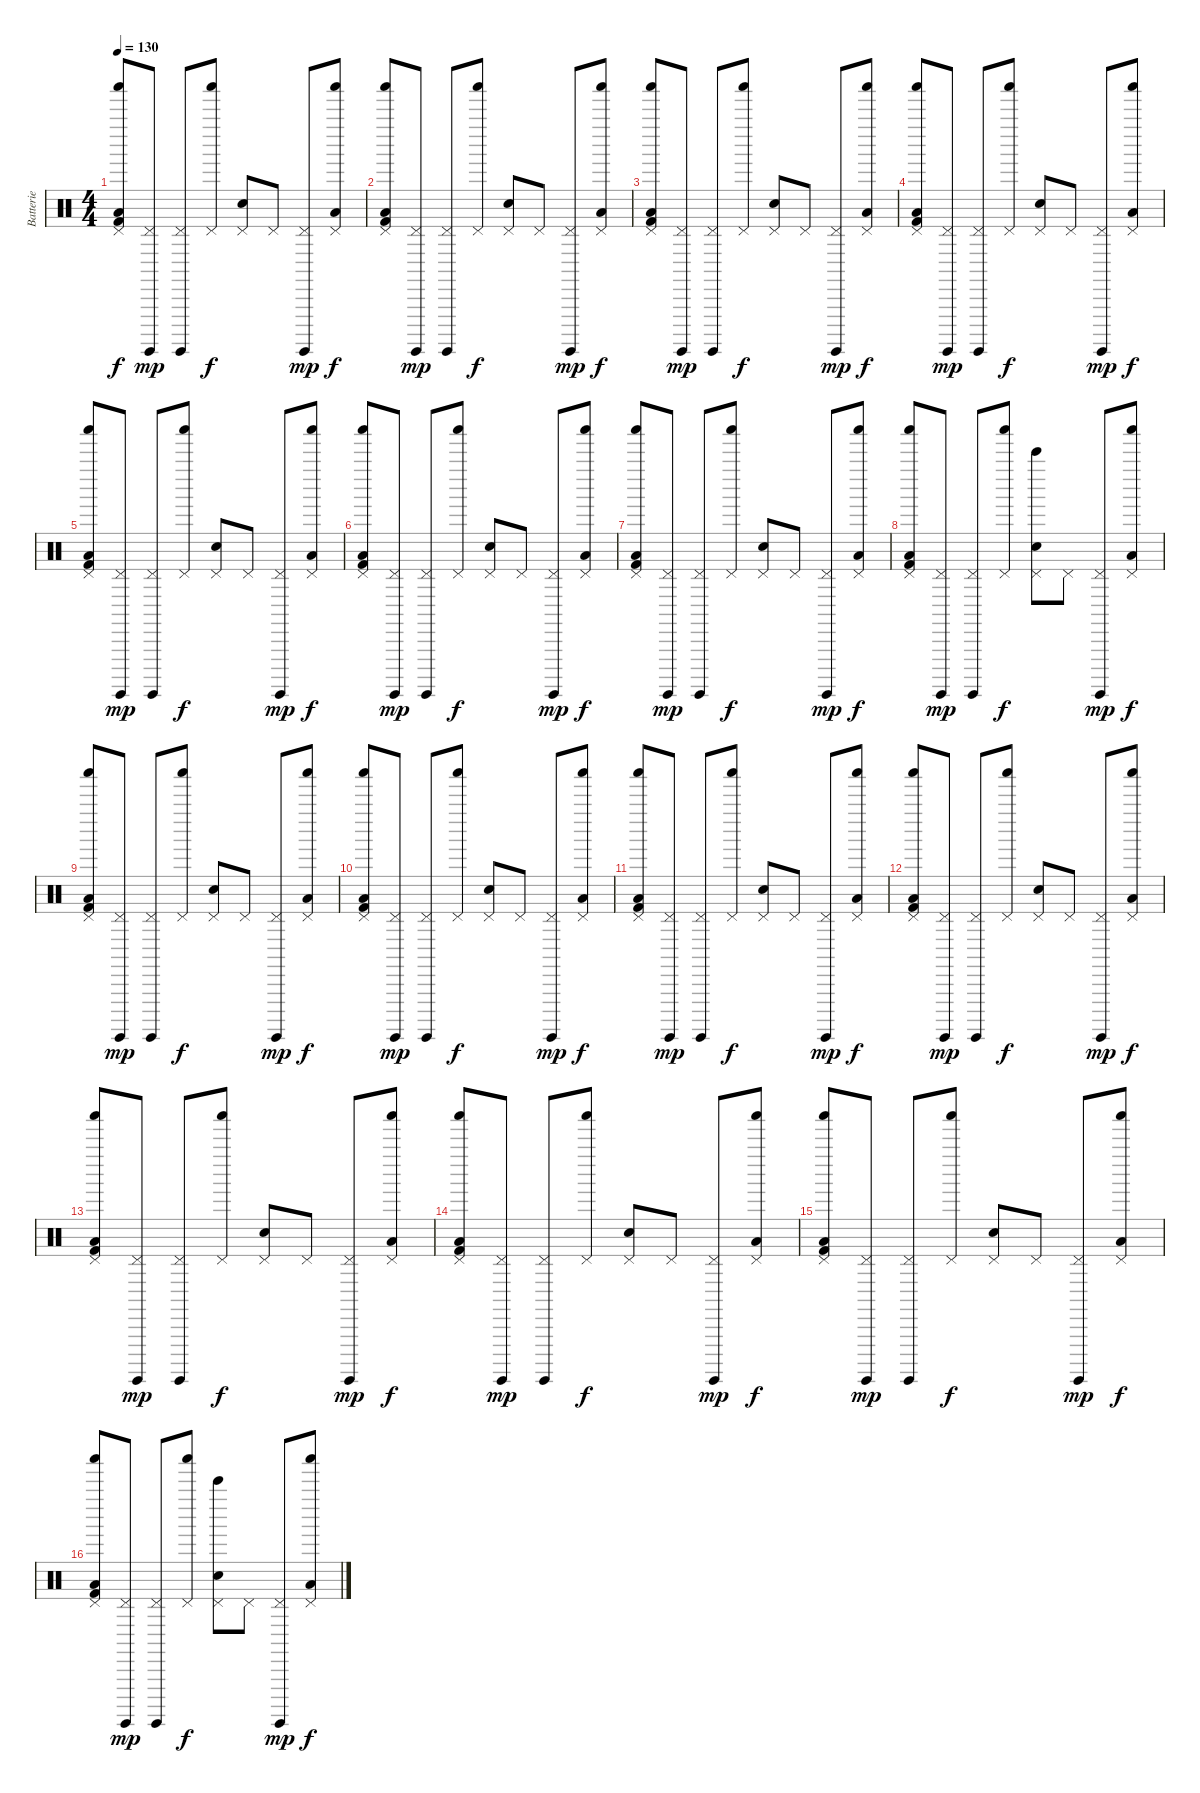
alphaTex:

\track ("Batterie" "Batterie") {instrument percussion}
\staff {score}
\articulation defaults
\ts (4 4)
\tempo 130
\clef neutral
\ks c
("Pedal Hi-Hat (hit)" "Shaker (hit)" "Low Floor Tom (hit)" "Kick (hit) 2").8{dy f} ("Pedal Hi-Hat (hit)" "Surdo (hit)").8{dy mp} ("Pedal Hi-Hat (hit)" "Surdo (hit)").8 ("Pedal Hi-Hat (hit)" "Shaker (hit)").8{dy f} ("Pedal Hi-Hat (hit)" "Electric Snare (hit)").8 "Pedal Hi-Hat (hit)".8 ("Pedal Hi-Hat (hit)" "Surdo (hit)").8{dy mp} ("Pedal Hi-Hat (hit)" "Shaker (hit)" "Low Floor Tom (hit)").8{dy f} |
("Pedal Hi-Hat (hit)" "Shaker (hit)" "Low Floor Tom (hit)" "Kick (hit) 2").8 ("Pedal Hi-Hat (hit)" "Surdo (hit)").8{dy mp} ("Pedal Hi-Hat (hit)" "Surdo (hit)").8 ("Pedal Hi-Hat (hit)" "Shaker (hit)").8{dy f} ("Pedal Hi-Hat (hit)" "Electric Snare (hit)").8 "Pedal Hi-Hat (hit)".8 ("Pedal Hi-Hat (hit)" "Surdo (hit)").8{dy mp} ("Pedal Hi-Hat (hit)" "Shaker (hit)" "Low Floor Tom (hit)").8{dy f} |
("Pedal Hi-Hat (hit)" "Shaker (hit)" "Low Floor Tom (hit)" "Kick (hit) 2").8 ("Pedal Hi-Hat (hit)" "Surdo (hit)").8{dy mp} ("Pedal Hi-Hat (hit)" "Surdo (hit)").8 ("Pedal Hi-Hat (hit)" "Shaker (hit)").8{dy f} ("Pedal Hi-Hat (hit)" "Electric Snare (hit)").8 "Pedal Hi-Hat (hit)".8 ("Pedal Hi-Hat (hit)" "Surdo (hit)").8{dy mp} ("Pedal Hi-Hat (hit)" "Shaker (hit)" "Low Floor Tom (hit)").8{dy f} |
("Pedal Hi-Hat (hit)" "Shaker (hit)" "Low Floor Tom (hit)" "Kick (hit) 2").8 ("Pedal Hi-Hat (hit)" "Surdo (hit)").8{dy mp} ("Pedal Hi-Hat (hit)" "Surdo (hit)").8 ("Pedal Hi-Hat (hit)" "Shaker (hit)").8{dy f} ("Pedal Hi-Hat (hit)" "Electric Snare (hit)").8 "Pedal Hi-Hat (hit)".8 ("Pedal Hi-Hat (hit)" "Surdo (hit)").8{dy mp} ("Pedal Hi-Hat (hit)" "Shaker (hit)" "Low Floor Tom (hit)").8{dy f} |
("Pedal Hi-Hat (hit)" "Shaker (hit)" "Low Floor Tom (hit)" "Kick (hit) 2").8 ("Pedal Hi-Hat (hit)" "Surdo (hit)").8{dy mp} ("Pedal Hi-Hat (hit)" "Surdo (hit)").8 ("Pedal Hi-Hat (hit)" "Shaker (hit)").8{dy f} ("Pedal Hi-Hat (hit)" "Electric Snare (hit)").8 "Pedal Hi-Hat (hit)".8 ("Pedal Hi-Hat (hit)" "Surdo (hit)").8{dy mp} ("Pedal Hi-Hat (hit)" "Shaker (hit)" "Low Floor Tom (hit)").8{dy f} |
("Pedal Hi-Hat (hit)" "Shaker (hit)" "Low Floor Tom (hit)" "Kick (hit) 2").8 ("Pedal Hi-Hat (hit)" "Surdo (hit)").8{dy mp} ("Pedal Hi-Hat (hit)" "Surdo (hit)").8 ("Pedal Hi-Hat (hit)" "Shaker (hit)").8{dy f} ("Pedal Hi-Hat (hit)" "Electric Snare (hit)").8 "Pedal Hi-Hat (hit)".8 ("Pedal Hi-Hat (hit)" "Surdo (hit)").8{dy mp} ("Pedal Hi-Hat (hit)" "Shaker (hit)" "Low Floor Tom (hit)").8{dy f} |
("Pedal Hi-Hat (hit)" "Shaker (hit)" "Low Floor Tom (hit)" "Kick (hit) 2").8 ("Pedal Hi-Hat (hit)" "Surdo (hit)").8{dy mp} ("Pedal Hi-Hat (hit)" "Surdo (hit)").8 ("Pedal Hi-Hat (hit)" "Shaker (hit)").8{dy f} ("Pedal Hi-Hat (hit)" "Electric Snare (hit)").8 "Pedal Hi-Hat (hit)".8 ("Pedal Hi-Hat (hit)" "Surdo (hit)").8{dy mp} ("Pedal Hi-Hat (hit)" "Shaker (hit)" "Low Floor Tom (hit)").8{dy f} |
("Pedal Hi-Hat (hit)" "Shaker (hit)" "Low Floor Tom (hit)" "Kick (hit) 2").8 ("Pedal Hi-Hat (hit)" "Surdo (hit)").8{dy mp} ("Pedal Hi-Hat (hit)" "Surdo (hit)").8 ("Pedal Hi-Hat (hit)" "Shaker (hit)").8{dy f} ("Pedal Hi-Hat (hit)" "Bell Tree (hit)" "Electric Snare (hit)").8 "Pedal Hi-Hat (hit)".8 ("Pedal Hi-Hat (hit)" "Surdo (hit)").8{dy mp} ("Pedal Hi-Hat (hit)" "Shaker (hit)" "Low Floor Tom (hit)").8{dy f} |
("Pedal Hi-Hat (hit)" "Shaker (hit)" "Low Floor Tom (hit)" "Kick (hit) 2").8 ("Pedal Hi-Hat (hit)" "Surdo (hit)").8{dy mp} ("Pedal Hi-Hat (hit)" "Surdo (hit)").8 ("Pedal Hi-Hat (hit)" "Shaker (hit)").8{dy f} ("Pedal Hi-Hat (hit)" "Electric Snare (hit)").8 "Pedal Hi-Hat (hit)".8 ("Pedal Hi-Hat (hit)" "Surdo (hit)").8{dy mp} ("Pedal Hi-Hat (hit)" "Shaker (hit)" "Low Floor Tom (hit)").8{dy f} |
("Pedal Hi-Hat (hit)" "Shaker (hit)" "Low Floor Tom (hit)" "Kick (hit) 2").8 ("Pedal Hi-Hat (hit)" "Surdo (hit)").8{dy mp} ("Pedal Hi-Hat (hit)" "Surdo (hit)").8 ("Pedal Hi-Hat (hit)" "Shaker (hit)").8{dy f} ("Pedal Hi-Hat (hit)" "Electric Snare (hit)").8 "Pedal Hi-Hat (hit)".8 ("Pedal Hi-Hat (hit)" "Surdo (hit)").8{dy mp} ("Pedal Hi-Hat (hit)" "Shaker (hit)" "Low Floor Tom (hit)").8{dy f} |
("Pedal Hi-Hat (hit)" "Shaker (hit)" "Low Floor Tom (hit)" "Kick (hit) 2").8 ("Pedal Hi-Hat (hit)" "Surdo (hit)").8{dy mp} ("Pedal Hi-Hat (hit)" "Surdo (hit)").8 ("Pedal Hi-Hat (hit)" "Shaker (hit)").8{dy f} ("Pedal Hi-Hat (hit)" "Electric Snare (hit)").8 "Pedal Hi-Hat (hit)".8 ("Pedal Hi-Hat (hit)" "Surdo (hit)").8{dy mp} ("Pedal Hi-Hat (hit)" "Shaker (hit)" "Low Floor Tom (hit)").8{dy f} |
("Pedal Hi-Hat (hit)" "Shaker (hit)" "Low Floor Tom (hit)" "Kick (hit) 2").8 ("Pedal Hi-Hat (hit)" "Surdo (hit)").8{dy mp} ("Pedal Hi-Hat (hit)" "Surdo (hit)").8 ("Pedal Hi-Hat (hit)" "Shaker (hit)").8{dy f} ("Pedal Hi-Hat (hit)" "Electric Snare (hit)").8 "Pedal Hi-Hat (hit)".8 ("Pedal Hi-Hat (hit)" "Surdo (hit)").8{dy mp} ("Pedal Hi-Hat (hit)" "Shaker (hit)" "Low Floor Tom (hit)").8{dy f} |
("Pedal Hi-Hat (hit)" "Shaker (hit)" "Low Floor Tom (hit)" "Kick (hit) 2").8 ("Pedal Hi-Hat (hit)" "Surdo (hit)").8{dy mp} ("Pedal Hi-Hat (hit)" "Surdo (hit)").8 ("Pedal Hi-Hat (hit)" "Shaker (hit)").8{dy f} ("Pedal Hi-Hat (hit)" "Electric Snare (hit)").8 "Pedal Hi-Hat (hit)".8 ("Pedal Hi-Hat (hit)" "Surdo (hit)").8{dy mp} ("Pedal Hi-Hat (hit)" "Shaker (hit)" "Low Floor Tom (hit)").8{dy f} |
("Pedal Hi-Hat (hit)" "Shaker (hit)" "Low Floor Tom (hit)" "Kick (hit) 2").8 ("Pedal Hi-Hat (hit)" "Surdo (hit)").8{dy mp} ("Pedal Hi-Hat (hit)" "Surdo (hit)").8 ("Pedal Hi-Hat (hit)" "Shaker (hit)").8{dy f} ("Pedal Hi-Hat (hit)" "Electric Snare (hit)").8 "Pedal Hi-Hat (hit)".8 ("Pedal Hi-Hat (hit)" "Surdo (hit)").8{dy mp} ("Pedal Hi-Hat (hit)" "Shaker (hit)" "Low Floor Tom (hit)").8{dy f} |
("Pedal Hi-Hat (hit)" "Shaker (hit)" "Low Floor Tom (hit)" "Kick (hit) 2").8 ("Pedal Hi-Hat (hit)" "Surdo (hit)").8{dy mp} ("Pedal Hi-Hat (hit)" "Surdo (hit)").8 ("Pedal Hi-Hat (hit)" "Shaker (hit)").8{dy f} ("Pedal Hi-Hat (hit)" "Electric Snare (hit)").8 "Pedal Hi-Hat (hit)".8 ("Pedal Hi-Hat (hit)" "Surdo (hit)").8{dy mp} ("Pedal Hi-Hat (hit)" "Shaker (hit)" "Low Floor Tom (hit)").8{dy f} |
("Pedal Hi-Hat (hit)" "Shaker (hit)" "Low Floor Tom (hit)" "Kick (hit) 2").8 ("Pedal Hi-Hat (hit)" "Surdo (hit)").8{dy mp} ("Pedal Hi-Hat (hit)" "Surdo (hit)").8 ("Pedal Hi-Hat (hit)" "Shaker (hit)").8{dy f} ("Pedal Hi-Hat (hit)" "Bell Tree (hit)" "Electric Snare (hit)").8 "Pedal Hi-Hat (hit)".8 ("Pedal Hi-Hat (hit)" "Surdo (hit)").8{dy mp} ("Pedal Hi-Hat (hit)" "Shaker (hit)" "Low Floor Tom (hit)").8{dy f}
